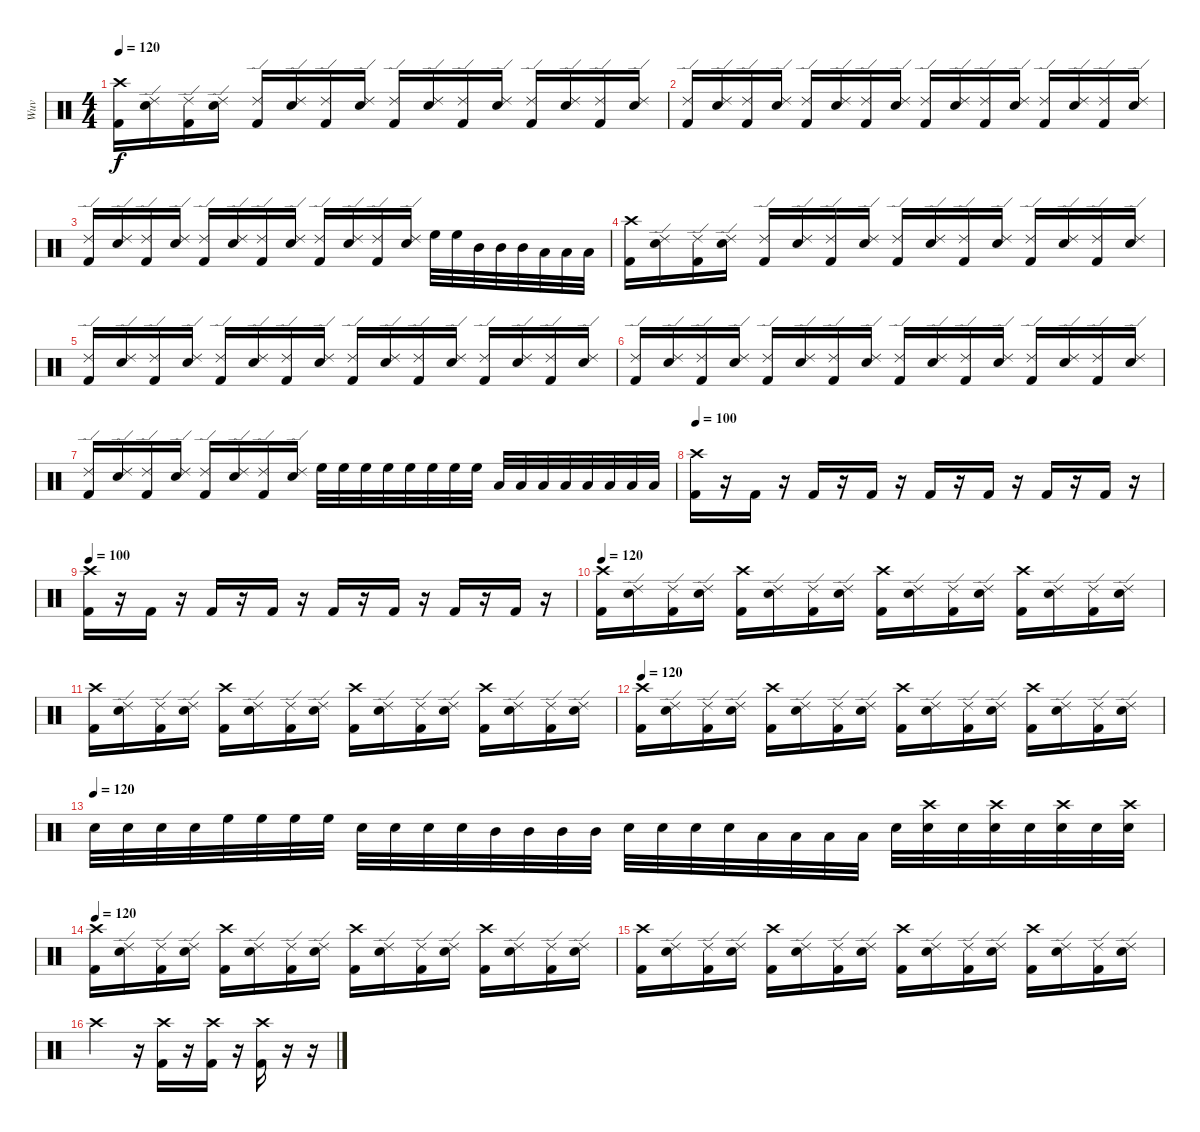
\track ("Wuv" "Wuv") {instrument percussion}
\staff {score}
\articulation defaults
\ts (4 4)
\tempo 120
\clef neutral
\ks c
("Crash high (hit)" "Kick (hit) 2").16{dy f} ("Ride (edge) 2" "Snare (hit) 2").16 ("Ride (edge) 2" "Kick (hit) 2").16 ("Ride (edge) 2" "Snare (hit) 2").16 ("Ride (edge) 2" "Kick (hit) 2").16 ("Ride (edge) 2" "Snare (hit) 2").16 ("Ride (edge) 2" "Kick (hit) 2").16 ("Ride (edge) 2" "Snare (hit) 2").16 ("Ride (edge) 2" "Kick (hit) 2").16 ("Ride (edge) 2" "Snare (hit) 2").16 ("Ride (edge) 2" "Kick (hit) 2").16 ("Ride (edge) 2" "Snare (hit) 2").16 ("Ride (edge) 2" "Kick (hit) 2").16 ("Ride (edge) 2" "Snare (hit) 2").16 ("Ride (edge) 2" "Kick (hit) 2").16 ("Ride (edge) 2" "Snare (hit) 2").16 |
("Ride (edge) 2" "Kick (hit) 2").16 ("Ride (edge) 2" "Snare (hit) 2").16 ("Ride (edge) 2" "Kick (hit) 2").16 ("Ride (edge) 2" "Snare (hit) 2").16 ("Ride (edge) 2" "Kick (hit) 2").16 ("Ride (edge) 2" "Snare (hit) 2").16 ("Ride (edge) 2" "Kick (hit) 2").16 ("Ride (edge) 2" "Snare (hit) 2").16 ("Ride (edge) 2" "Kick (hit) 2").16 ("Ride (edge) 2" "Snare (hit) 2").16 ("Ride (edge) 2" "Kick (hit) 2").16 ("Ride (edge) 2" "Snare (hit) 2").16 ("Ride (edge) 2" "Kick (hit) 2").16 ("Ride (edge) 2" "Snare (hit) 2").16 ("Ride (edge) 2" "Kick (hit) 2").16 ("Ride (edge) 2" "Snare (hit) 2").16 |
("Ride (edge) 2" "Kick (hit) 2").16 ("Ride (edge) 2" "Snare (hit) 2").16 ("Ride (edge) 2" "Kick (hit) 2").16 ("Ride (edge) 2" "Snare (hit) 2").16 ("Ride (edge) 2" "Kick (hit) 2").16 ("Ride (edge) 2" "Snare (hit) 2").16 ("Ride (edge) 2" "Kick (hit) 2").16 ("Ride (edge) 2" "Snare (hit) 2").16 ("Ride (edge) 2" "Kick (hit) 2").16 ("Ride (edge) 2" "Snare (hit) 2").16 ("Ride (edge) 2" "Kick (hit) 2").16 ("Ride (edge) 2" "Snare (hit) 2").16 "High Floor Tom (hit)".32 "High Floor Tom (hit)".32 "Mid Tom (hit)".32 "Mid Tom (hit)".32 "Mid Tom (hit)".32 "Low Tom (hit)".32 "Low Tom (hit)".32 "Low Tom (hit)".32 |
("Crash high (hit)" "Kick (hit) 2").16 ("Ride (edge) 2" "Snare (hit) 2").16 ("Ride (edge) 2" "Kick (hit) 2").16 ("Ride (edge) 2" "Snare (hit) 2").16 ("Ride (edge) 2" "Kick (hit) 2").16 ("Ride (edge) 2" "Snare (hit) 2").16 ("Ride (edge) 2" "Kick (hit) 2").16 ("Ride (edge) 2" "Snare (hit) 2").16 ("Ride (edge) 2" "Kick (hit) 2").16 ("Ride (edge) 2" "Snare (hit) 2").16 ("Ride (edge) 2" "Kick (hit) 2").16 ("Ride (edge) 2" "Snare (hit) 2").16 ("Ride (edge) 2" "Kick (hit) 2").16 ("Ride (edge) 2" "Snare (hit) 2").16 ("Ride (edge) 2" "Kick (hit) 2").16 ("Ride (edge) 2" "Snare (hit) 2").16 |
("Ride (edge) 2" "Kick (hit) 2").16 ("Ride (edge) 2" "Snare (hit) 2").16 ("Ride (edge) 2" "Kick (hit) 2").16 ("Ride (edge) 2" "Snare (hit) 2").16 ("Ride (edge) 2" "Kick (hit) 2").16 ("Ride (edge) 2" "Snare (hit) 2").16 ("Ride (edge) 2" "Kick (hit) 2").16 ("Ride (edge) 2" "Snare (hit) 2").16 ("Ride (edge) 2" "Kick (hit) 2").16 ("Ride (edge) 2" "Snare (hit) 2").16 ("Ride (edge) 2" "Kick (hit) 2").16 ("Ride (edge) 2" "Snare (hit) 2").16 ("Ride (edge) 2" "Kick (hit) 2").16 ("Ride (edge) 2" "Snare (hit) 2").16 ("Ride (edge) 2" "Kick (hit) 2").16 ("Ride (edge) 2" "Snare (hit) 2").16 |
("Ride (edge) 2" "Kick (hit) 2").16 ("Ride (edge) 2" "Snare (hit) 2").16 ("Ride (edge) 2" "Kick (hit) 2").16 ("Ride (edge) 2" "Snare (hit) 2").16 ("Ride (edge) 2" "Kick (hit) 2").16 ("Ride (edge) 2" "Snare (hit) 2").16 ("Ride (edge) 2" "Kick (hit) 2").16 ("Ride (edge) 2" "Snare (hit) 2").16 ("Ride (edge) 2" "Kick (hit) 2").16 ("Ride (edge) 2" "Snare (hit) 2").16 ("Ride (edge) 2" "Kick (hit) 2").16 ("Ride (edge) 2" "Snare (hit) 2").16 ("Ride (edge) 2" "Kick (hit) 2").16 ("Ride (edge) 2" "Snare (hit) 2").16 ("Ride (edge) 2" "Kick (hit) 2").16 ("Ride (edge) 2" "Snare (hit) 2").16 |
("Ride (edge) 2" "Kick (hit) 2").16 ("Ride (edge) 2" "Snare (hit) 2").16 ("Ride (edge) 2" "Kick (hit) 2").16 ("Ride (edge) 2" "Snare (hit) 2").16 ("Ride (edge) 2" "Kick (hit) 2").16 ("Ride (edge) 2" "Snare (hit) 2").16 ("Ride (edge) 2" "Kick (hit) 2").16 ("Ride (edge) 2" "Snare (hit) 2").16 "High Floor Tom (hit)".32 "High Floor Tom (hit)".32 "High Floor Tom (hit)".32 "High Floor Tom (hit)".32 "High Floor Tom (hit)".32 "High Floor Tom (hit)".32 "High Floor Tom (hit)".32 "High Floor Tom (hit)".32 "Low Tom (hit)".32 "Low Tom (hit)".32 "Low Tom (hit)".32 "Low Tom (hit)".32 "Low Tom (hit)".32 "Low Tom (hit)".32 "Low Tom (hit)".32 "Low Tom (hit)".32 |
\tempo 100
("Crash high (hit)" "Kick (hit) 2").16 r.16 "Kick (hit) 2".16 r.16 "Kick (hit) 2".16 r.16 "Kick (hit) 2".16 r.16 "Kick (hit) 2".16 r.16 "Kick (hit) 2".16 r.16 "Kick (hit) 2".16 r.16 "Kick (hit) 2".16 r.16 |
\tempo 100
("Crash high (hit)" "Kick (hit) 2").16 r.16 "Kick (hit) 2".16 r.16 "Kick (hit) 2".16 r.16 "Kick (hit) 2".16 r.16 "Kick (hit) 2".16 r.16 "Kick (hit) 2".16 r.16 "Kick (hit) 2".16 r.16 "Kick (hit) 2".16 r.16 |
\tempo 120
("Crash high (hit)" "Kick (hit) 2").16 ("Ride (edge) 2" "Snare (hit) 2").16 ("Ride (edge) 2" "Kick (hit) 2").16 ("Ride (edge) 2" "Snare (hit) 2").16 ("Crash high (hit)" "Kick (hit) 2").16 ("Ride (edge) 2" "Snare (hit) 2").16 ("Ride (edge) 2" "Kick (hit) 2").16 ("Ride (edge) 2" "Snare (hit) 2").16 ("Crash high (hit)" "Kick (hit) 2").16 ("Ride (edge) 2" "Snare (hit) 2").16 ("Ride (edge) 2" "Kick (hit) 2").16 ("Ride (edge) 2" "Snare (hit) 2").16 ("Crash high (hit)" "Kick (hit) 2").16 ("Ride (edge) 2" "Snare (hit) 2").16 ("Ride (edge) 2" "Kick (hit) 2").16 ("Ride (edge) 2" "Snare (hit) 2").16 |
("Crash high (hit)" "Kick (hit) 2").16 ("Ride (edge) 2" "Snare (hit) 2").16 ("Ride (edge) 2" "Kick (hit) 2").16 ("Ride (edge) 2" "Snare (hit) 2").16 ("Crash high (hit)" "Kick (hit) 2").16 ("Ride (edge) 2" "Snare (hit) 2").16 ("Ride (edge) 2" "Kick (hit) 2").16 ("Ride (edge) 2" "Snare (hit) 2").16 ("Crash high (hit)" "Kick (hit) 2").16 ("Ride (edge) 2" "Snare (hit) 2").16 ("Ride (edge) 2" "Kick (hit) 2").16 ("Ride (edge) 2" "Snare (hit) 2").16 ("Crash high (hit)" "Kick (hit) 2").16 ("Ride (edge) 2" "Snare (hit) 2").16 ("Ride (edge) 2" "Kick (hit) 2").16 ("Ride (edge) 2" "Snare (hit) 2").16 |
\tempo 120
("Crash high (hit)" "Kick (hit) 2").16 ("Ride (edge) 2" "Snare (hit) 2").16 ("Ride (edge) 2" "Kick (hit) 2").16 ("Ride (edge) 2" "Snare (hit) 2").16 ("Crash high (hit)" "Kick (hit) 2").16 ("Ride (edge) 2" "Snare (hit) 2").16 ("Ride (edge) 2" "Kick (hit) 2").16 ("Ride (edge) 2" "Snare (hit) 2").16 ("Crash high (hit)" "Kick (hit) 2").16 ("Ride (edge) 2" "Snare (hit) 2").16 ("Ride (edge) 2" "Kick (hit) 2").16 ("Ride (edge) 2" "Snare (hit) 2").16 ("Crash high (hit)" "Kick (hit) 2").16 ("Ride (edge) 2" "Snare (hit) 2").16 ("Ride (edge) 2" "Kick (hit) 2").16 ("Ride (edge) 2" "Snare (hit) 2").16 |
\tempo (120)
"Snare (hit) 2".32 "Snare (hit) 2".32 "Snare (hit) 2".32 "Snare (hit) 2".32 "High Floor Tom (hit)".32 "High Floor Tom (hit)".32 "High Floor Tom (hit)".32 "High Floor Tom (hit)".32 "Snare (hit) 2".32 "Snare (hit) 2".32 "Snare (hit) 2".32 "Snare (hit) 2".32 "Mid Tom (hit)".32 "Mid Tom (hit)".32 "Mid Tom (hit)".32 "Mid Tom (hit)".32 "Snare (hit) 2".32 "Snare (hit) 2".32 "Snare (hit) 2".32 "Snare (hit) 2".32 "Low Tom (hit)".32 "Low Tom (hit)".32 "Low Tom (hit)".32 "Low Tom (hit)".32 "Snare (hit) 2".32 ("Crash high (hit)" "Snare (hit) 2").32 "Snare (hit) 2".32 ("Crash high (hit)" "Snare (hit) 2").32 "Snare (hit) 2".32 ("Crash high (hit)" "Snare (hit) 2").32 "Snare (hit) 2".32 ("Crash high (hit)" "Snare (hit) 2").32 |
\tempo 120
("Crash high (hit)" "Kick (hit) 2").16 ("Ride (edge) 2" "Snare (hit) 2").16 ("Ride (edge) 2" "Kick (hit) 2").16 ("Ride (edge) 2" "Snare (hit) 2").16 ("Crash high (hit)" "Kick (hit) 2").16 ("Ride (edge) 2" "Snare (hit) 2").16 ("Ride (edge) 2" "Kick (hit) 2").16 ("Ride (edge) 2" "Snare (hit) 2").16 ("Crash high (hit)" "Kick (hit) 2").16 ("Ride (edge) 2" "Snare (hit) 2").16 ("Ride (edge) 2" "Kick (hit) 2").16 ("Ride (edge) 2" "Snare (hit) 2").16 ("Crash high (hit)" "Kick (hit) 2").16 ("Ride (edge) 2" "Snare (hit) 2").16 ("Ride (edge) 2" "Kick (hit) 2").16 ("Ride (edge) 2" "Snare (hit) 2").16 |
("Crash high (hit)" "Kick (hit) 2").16 ("Ride (edge) 2" "Snare (hit) 2").16 ("Ride (edge) 2" "Kick (hit) 2").16 ("Ride (edge) 2" "Snare (hit) 2").16 ("Crash high (hit)" "Kick (hit) 2").16 ("Ride (edge) 2" "Snare (hit) 2").16 ("Ride (edge) 2" "Kick (hit) 2").16 ("Ride (edge) 2" "Snare (hit) 2").16 ("Crash high (hit)" "Kick (hit) 2").16 ("Ride (edge) 2" "Snare (hit) 2").16 ("Ride (edge) 2" "Kick (hit) 2").16 ("Ride (edge) 2" "Snare (hit) 2").16 ("Crash high (hit)" "Kick (hit) 2").16 ("Ride (edge) 2" "Snare (hit) 2").16 ("Ride (edge) 2" "Kick (hit) 2").16 ("Ride (edge) 2" "Snare (hit) 2").16 |
"Crash high (hit)".2 r.16 ("Crash high (hit)" "Kick (hit) 2").16 r.16 ("Crash high (hit)" "Kick (hit) 2").16 r.16 ("Crash high (hit)" "Kick (hit) 2").16 r.16 r.16
